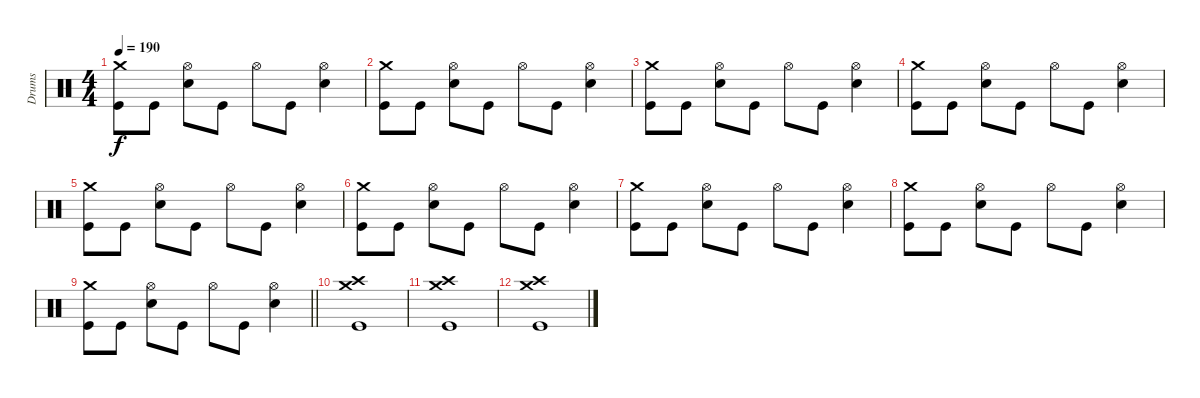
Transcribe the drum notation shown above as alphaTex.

\track ("Drums" "Drums") {instrument percussion}
\staff {score}
\articulation defaults
\ts (4 4)
\tempo 190
\clef neutral
\ks c
("Crash medium (hit)" "Kick (hit)").8{dy f} "Kick (hit)".8 ("Hi-Hat (open)" "Snare (hit) 2").8 "Kick (hit)".8 "Hi-Hat (open)".8 "Kick (hit)".8 ("Hi-Hat (open)" "Snare (hit) 2").4 |
("Crash medium (hit)" "Kick (hit)").8 "Kick (hit)".8 ("Hi-Hat (open)" "Snare (hit) 2").8 "Kick (hit)".8 "Hi-Hat (open)".8 "Kick (hit)".8 ("Hi-Hat (open)" "Snare (hit) 2").4 |
("Crash medium (hit)" "Kick (hit)").8 "Kick (hit)".8 ("Hi-Hat (open)" "Snare (hit) 2").8 "Kick (hit)".8 "Hi-Hat (open)".8 "Kick (hit)".8 ("Hi-Hat (open)" "Snare (hit) 2").4 |
("Crash medium (hit)" "Kick (hit)").8 "Kick (hit)".8 ("Hi-Hat (open)" "Snare (hit) 2").8 "Kick (hit)".8 "Hi-Hat (open)".8 "Kick (hit)".8 ("Hi-Hat (open)" "Snare (hit) 2").4 |
("Crash medium (hit)" "Kick (hit)").8 "Kick (hit)".8 ("Hi-Hat (open)" "Snare (hit) 2").8 "Kick (hit)".8 "Hi-Hat (open)".8 "Kick (hit)".8 ("Hi-Hat (open)" "Snare (hit) 2").4 |
("Crash medium (hit)" "Kick (hit)").8 "Kick (hit)".8 ("Hi-Hat (open)" "Snare (hit) 2").8 "Kick (hit)".8 "Hi-Hat (open)".8 "Kick (hit)".8 ("Hi-Hat (open)" "Snare (hit) 2").4 |
("Crash medium (hit)" "Kick (hit)").8 "Kick (hit)".8 ("Hi-Hat (open)" "Snare (hit) 2").8 "Kick (hit)".8 "Hi-Hat (open)".8 "Kick (hit)".8 ("Hi-Hat (open)" "Snare (hit) 2").4 |
("Crash medium (hit)" "Kick (hit)").8 "Kick (hit)".8 ("Hi-Hat (open)" "Snare (hit) 2").8 "Kick (hit)".8 "Hi-Hat (open)".8 "Kick (hit)".8 ("Hi-Hat (open)" "Snare (hit) 2").4 |
\barLineRight lightlight
("Crash medium (hit)" "Kick (hit)").8 "Kick (hit)".8 ("Hi-Hat (open)" "Snare (hit) 2").8 "Kick (hit)".8 "Hi-Hat (open)".8 "Kick (hit)".8 ("Hi-Hat (open)" "Snare (hit) 2").4 |
("Crash high (hit)" "Crash medium (hit)" "Kick (hit)").1 |
("Crash high (hit)" "Crash medium (hit)" "Kick (hit)").1 |
("Crash high (hit)" "Crash medium (hit)" "Kick (hit)").1
